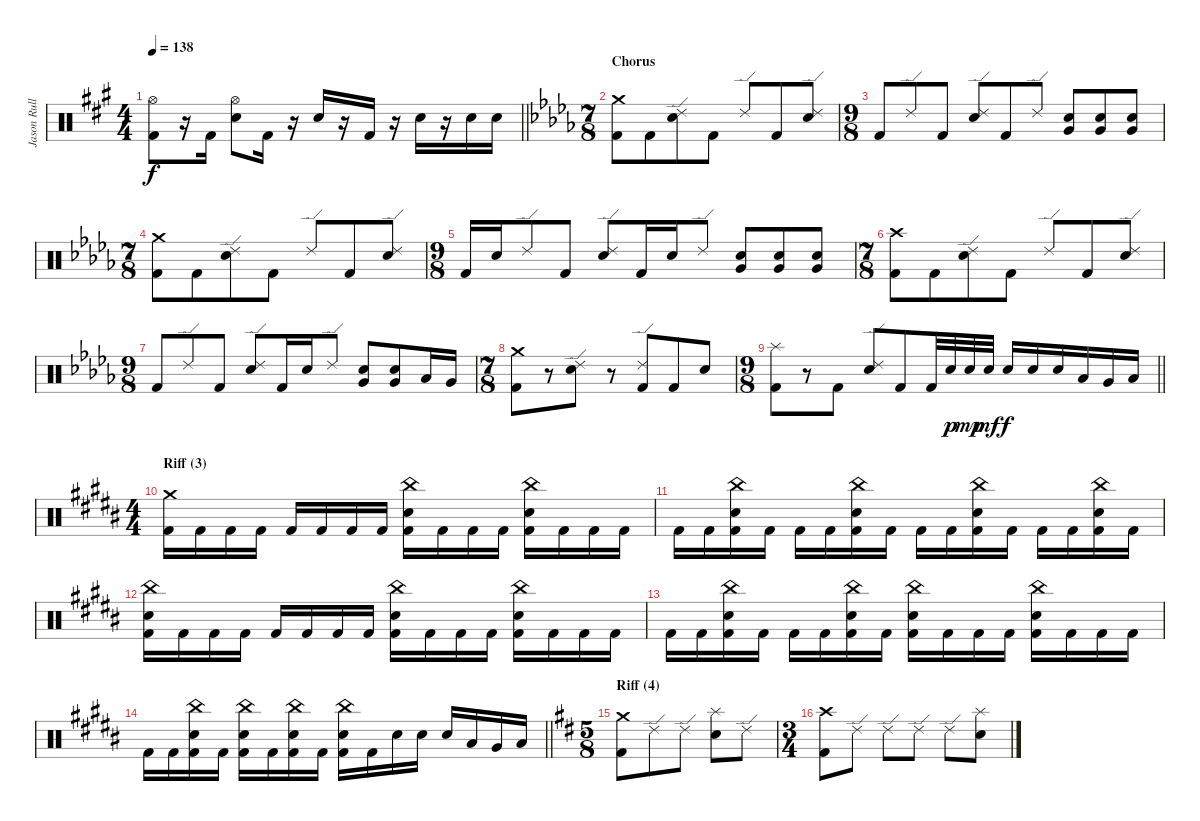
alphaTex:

\track ("Jason Rullo (drums)" "Jason Rull") {instrument percussion}
\staff {score}
\articulation defaults
\ts (4 4)
\tempo 138
\clef neutral
\barLineRight lightlight
\ks f#minor
("Hi-Hat (open)" "Kick (hit) 2").8{dy f} r.16 "Kick (hit) 2".16 ("Hi-Hat (open)" "Electric Snare (hit)").8 "Kick (hit) 2".16 r.16 "Electric Snare (hit)".16 r.16 "Kick (hit) 2".16 r.16 "Electric Snare (hit)".16 r.16 "Electric Snare (hit)".16 "Electric Snare (hit)".16 |
\ts (7 8)
\section ("" "Chorus")
\ks bbminor
("Kick (hit) 2" "Crash medium (hit)").8 "Kick (hit) 2".8 ("Electric Snare (hit)" "Ride (edge) 2").8 "Kick (hit) 2".8 "Ride (edge) 2".8 "Kick (hit) 2".8 ("Electric Snare (hit)" "Ride (edge) 2").8 |
\ts (9 8)
"Kick (hit) 2".8 "Ride (edge) 2".8 "Kick (hit) 2".8 ("Electric Snare (hit)" "Ride (edge) 2").8 "Kick (hit) 2".8 "Ride (edge) 2".8 ("Very Low Tom (hit)" "Electric Snare (hit)").8 ("Very Low Tom (hit)" "Electric Snare (hit)").8 ("Very Low Tom (hit)" "Electric Snare (hit)").8 |
\ts (7 8)
("Kick (hit) 2" "Crash medium (hit)").8 "Kick (hit) 2".8 ("Electric Snare (hit)" "Ride (edge) 2").8 "Kick (hit) 2".8 "Ride (edge) 2".8 "Kick (hit) 2".8 ("Electric Snare (hit)" "Ride (edge) 2").8 |
\ts (9 8)
"Kick (hit) 2".16 "Electric Snare (hit)".16 "Ride (edge) 2".8 "Kick (hit) 2".8 ("Electric Snare (hit)" "Ride (edge) 2").8 "Kick (hit) 2".16 "Electric Snare (hit)".16 "Ride (edge) 2".8 ("Very Low Tom (hit)" "Electric Snare (hit)").8 ("Very Low Tom (hit)" "Electric Snare (hit)").8 ("Very Low Tom (hit)" "Electric Snare (hit)").8 |
\ts (7 8)
("Crash high (hit)" "Kick (hit) 2").8 "Kick (hit) 2".8 ("Electric Snare (hit)" "Ride (edge) 2").8 "Kick (hit) 2".8 "Ride (edge) 2".8 "Kick (hit) 2".8 ("Electric Snare (hit)" "Ride (edge) 2").8 |
\ts (9 8)
"Kick (hit) 2".8 "Ride (edge) 2".8 "Kick (hit) 2".8 ("Electric Snare (hit)" "Ride (edge) 2").8 "Kick (hit) 2".16 "Electric Snare (hit)".16 "Ride (edge) 2".8 ("Very Low Tom (hit)" "Electric Snare (hit)").8 ("Very Low Tom (hit)" "Electric Snare (hit)").8 "Low Tom (hit)".16 "Very Low Tom (hit)".16 |
\ts (7 8)
("Kick (hit) 2" "Crash medium (hit)").8 r.8 ("Electric Snare (hit)" "Ride (edge) 2").8 r.8 ("Kick (hit) 2" "Ride (edge) 2").8 "Kick (hit) 2".8 "Electric Snare (hit)".8 |
\ts (9 8)
\barLineRight lightlight
("Splash (hit)" "Kick (hit) 2").8 r.8 "Kick (hit) 2".8 ("Ride (edge) 2" "Electric Snare (hit)").8 "Kick (hit) 2".8 "Kick (hit) 2".32 "Electric Snare (hit)".32{dy p} "Electric Snare (hit)".32{dy mp} "Electric Snare (hit)".32{dy mf} "Electric Snare (hit)".16{dy f} "Electric Snare (hit)".16 "Electric Snare (hit)".16 "Low Tom (hit)".16 "Very Low Tom (hit)".16 "Low Floor Tom (hit)".16 |
\ts (4 4)
\section ("" "Riff (3)")
\ks g#minor
("Crash medium (hit)" "Kick (hit) 2").16 "Kick (hit) 2".16 "Kick (hit) 2".16 "Kick (hit) 2".16 "Kick (hit) 2".16 "Kick (hit) 2".16 "Kick (hit) 2".16 "Kick (hit) 2".16 ("China (hit)" "Electric Snare (hit)" "Kick (hit) 2").16 "Kick (hit) 2".16 "Kick (hit) 2".16 "Kick (hit) 2".16 ("China (hit)" "Electric Snare (hit)" "Kick (hit) 2").16 "Kick (hit) 2".16 "Kick (hit) 2".16 "Kick (hit) 2".16 |
"Kick (hit) 2".16 "Kick (hit) 2".16 ("China (hit)" "Electric Snare (hit)" "Kick (hit) 2").16 "Kick (hit) 2".16 "Kick (hit) 2".16 "Kick (hit) 2".16 ("China (hit)" "Electric Snare (hit)" "Kick (hit) 2").16 "Kick (hit) 2".16 "Kick (hit) 2".16 "Kick (hit) 2".16 ("China (hit)" "Electric Snare (hit)" "Kick (hit) 2").16 "Kick (hit) 2".16 "Kick (hit) 2".16 "Kick (hit) 2".16 ("China (hit)" "Electric Snare (hit)" "Kick (hit) 2").16 "Kick (hit) 2".16 |
("China (hit)" "Electric Snare (hit)" "Kick (hit) 2").16 "Kick (hit) 2".16 "Kick (hit) 2".16 "Kick (hit) 2".16 "Kick (hit) 2".16 "Kick (hit) 2".16 "Kick (hit) 2".16 "Kick (hit) 2".16 ("China (hit)" "Electric Snare (hit)" "Kick (hit) 2").16 "Kick (hit) 2".16 "Kick (hit) 2".16 "Kick (hit) 2".16 ("China (hit)" "Electric Snare (hit)" "Kick (hit) 2").16 "Kick (hit) 2".16 "Kick (hit) 2".16 "Kick (hit) 2".16 |
"Kick (hit) 2".16 "Kick (hit) 2".16 ("China (hit)" "Electric Snare (hit)" "Kick (hit) 2").16 "Kick (hit) 2".16 "Kick (hit) 2".16 "Kick (hit) 2".16 ("China (hit)" "Electric Snare (hit)" "Kick (hit) 2").16 "Kick (hit) 2".16 ("China (hit)" "Electric Snare (hit)" "Kick (hit) 2").16 "Kick (hit) 2".16 "Kick (hit) 2".16 "Kick (hit) 2".16 ("China (hit)" "Electric Snare (hit)" "Kick (hit) 2").16 "Kick (hit) 2".16 "Kick (hit) 2".16 "Kick (hit) 2".16 |
\barLineRight lightlight "Kick (hit) 2".16 "Kick (hit) 2".16
("China (hit)" "Electric Snare (hit)" "Kick (hit) 2").16 "Kick (hit) 2".16 ("China (hit)" "Electric Snare (hit)" "Kick (hit) 2").16 "Kick (hit) 2".16 ("China (hit)" "Electric Snare (hit)" "Kick (hit) 2").16 "Kick (hit) 2".16 ("China (hit)" "Electric Snare (hit)" "Kick (hit) 2").16 "Kick (hit) 2".16 "Electric Snare (hit)".16 "Electric Snare (hit)".16 "Electric Snare (hit)".16 "Low Tom (hit)".16 "Very Low Tom (hit)".16 "Low Floor Tom (hit)".16 |
\ts (5 8)
\section ("" "Riff (4)")
\ks bminor
("Kick (hit) 2" "Crash medium (hit)").8 "Ride (edge) 2".8 "Ride (edge) 2".8 ("Splash (hit)" "Electric Snare (hit)").8 "Ride (edge) 2".8 |
\ts (3 4)
("Crash high (hit)" "Kick (hit) 2").8 "Ride (edge) 2".8 "Ride (edge) 2".8 "Ride (edge) 2".8 "Ride (edge) 2".8 ("Splash (hit)" "Electric Snare (hit)").8
